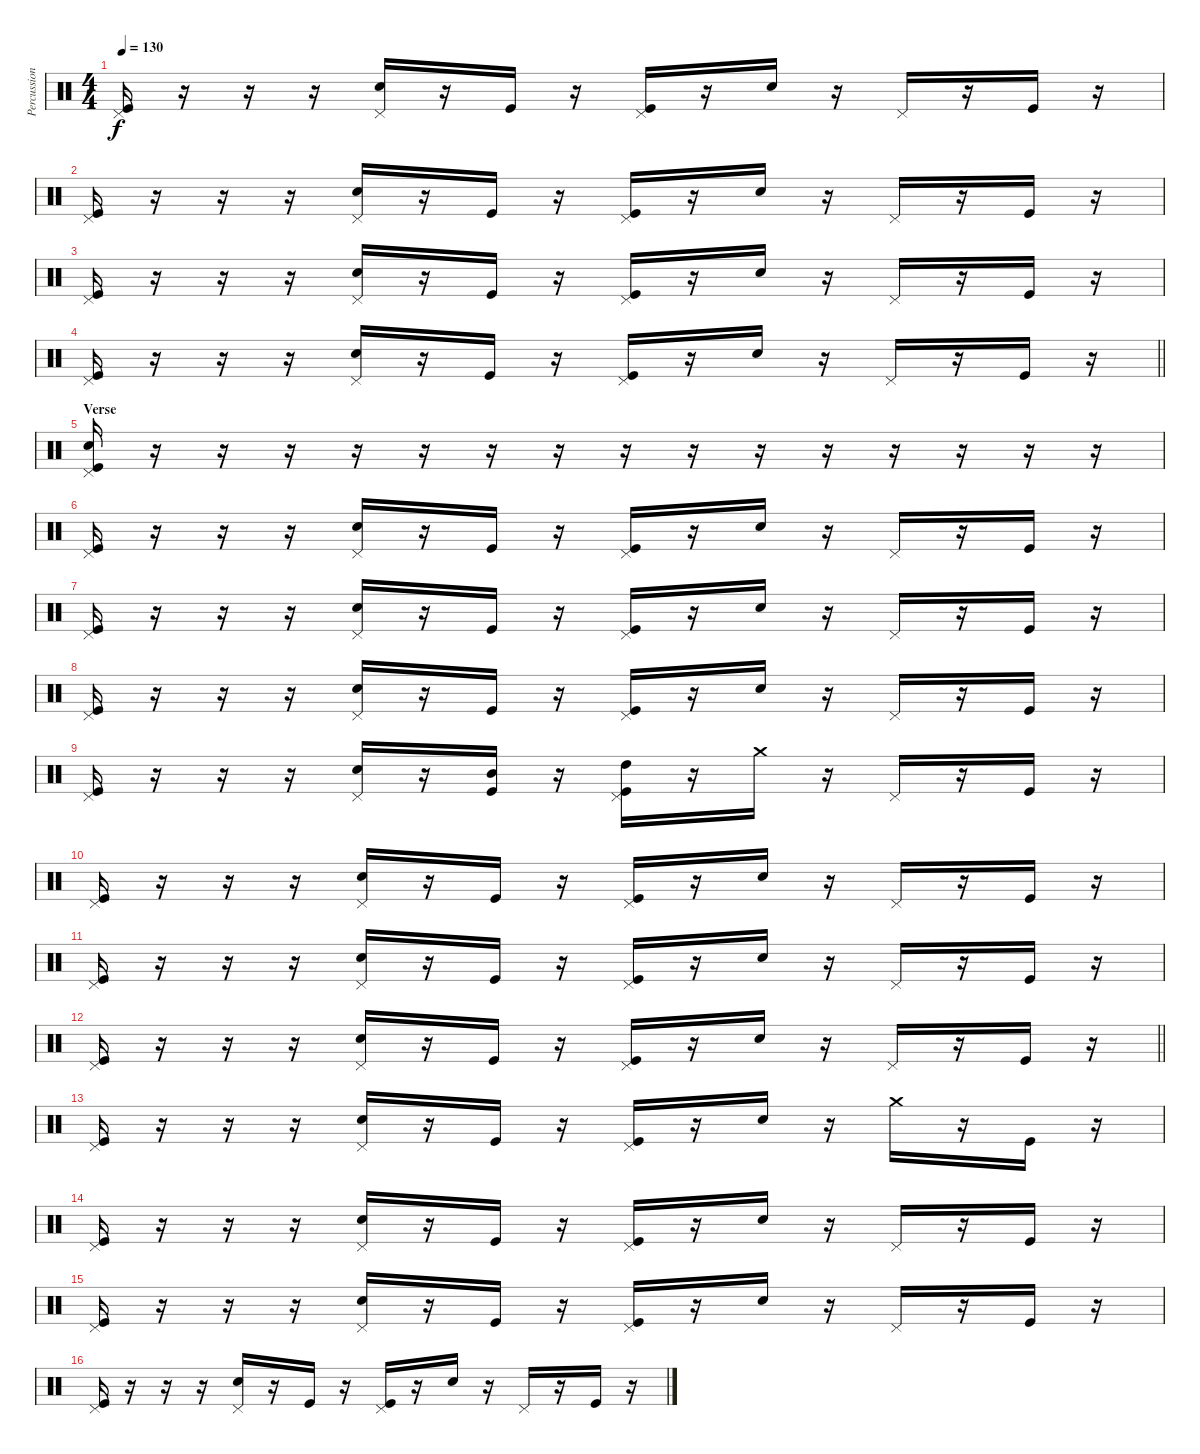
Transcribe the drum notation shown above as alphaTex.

\track ("Percussion" "Percussion") {instrument percussion}
\staff {score}
\articulation defaults
\ts (4 4)
\tempo 130
\clef neutral
\ks c
("Pedal Hi-Hat (hit)" "Kick (hit)").16{dy f} r.16 r.16 r.16 ("Pedal Hi-Hat (hit)" "Electric Snare (hit)").16 r.16 "Kick (hit)".16 r.16 ("Pedal Hi-Hat (hit)" "Kick (hit)").16 r.16 "Electric Snare (hit)".16 r.16 "Pedal Hi-Hat (hit)".16 r.16 "Kick (hit)".16 r.16 |
("Pedal Hi-Hat (hit)" "Kick (hit)").16 r.16 r.16 r.16 ("Pedal Hi-Hat (hit)" "Electric Snare (hit)").16 r.16 "Kick (hit)".16 r.16 ("Pedal Hi-Hat (hit)" "Kick (hit)").16 r.16 "Electric Snare (hit)".16 r.16 "Pedal Hi-Hat (hit)".16 r.16 "Kick (hit)".16 r.16 |
("Pedal Hi-Hat (hit)" "Kick (hit)").16 r.16 r.16 r.16 ("Pedal Hi-Hat (hit)" "Electric Snare (hit)").16 r.16 "Kick (hit)".16 r.16 ("Pedal Hi-Hat (hit)" "Kick (hit)").16 r.16 "Electric Snare (hit)".16 r.16 "Pedal Hi-Hat (hit)".16 r.16 "Kick (hit)".16 r.16 |
\barLineRight lightlight
("Pedal Hi-Hat (hit)" "Kick (hit)").16 r.16 r.16 r.16 ("Pedal Hi-Hat (hit)" "Electric Snare (hit)").16 r.16 "Kick (hit)".16 r.16 ("Pedal Hi-Hat (hit)" "Kick (hit)").16 r.16 "Electric Snare (hit)".16 r.16 "Pedal Hi-Hat (hit)".16 r.16 "Kick (hit)".16 r.16 |
\section ("" "Verse")
("Pedal Hi-Hat (hit)" "Electric Snare (hit)" "Kick (hit)").16 r.16 r.16 r.16 r.16 r.16 r.16 r.16 r.16 r.16 r.16 r.16 r.16 r.16 r.16 r.16 |
("Pedal Hi-Hat (hit)" "Kick (hit)").16 r.16 r.16 r.16 ("Pedal Hi-Hat (hit)" "Electric Snare (hit)").16 r.16 "Kick (hit)".16 r.16 ("Pedal Hi-Hat (hit)" "Kick (hit)").16 r.16 "Electric Snare (hit)".16 r.16 "Pedal Hi-Hat (hit)".16 r.16 "Kick (hit)".16 r.16 |
("Pedal Hi-Hat (hit)" "Kick (hit)").16 r.16 r.16 r.16 ("Pedal Hi-Hat (hit)" "Electric Snare (hit)").16 r.16 "Kick (hit)".16 r.16 ("Pedal Hi-Hat (hit)" "Kick (hit)").16 r.16 "Electric Snare (hit)".16 r.16 "Pedal Hi-Hat (hit)".16 r.16 "Kick (hit)".16 r.16 |
("Pedal Hi-Hat (hit)" "Kick (hit)").16 r.16 r.16 r.16 ("Pedal Hi-Hat (hit)" "Electric Snare (hit)").16 r.16 "Kick (hit)".16 r.16 ("Pedal Hi-Hat (hit)" "Kick (hit)").16 r.16 "Electric Snare (hit)".16 r.16 "Pedal Hi-Hat (hit)".16 r.16 "Kick (hit)".16 r.16 |
("Pedal Hi-Hat (hit)" "Kick (hit)").16 r.16 r.16 r.16 ("Pedal Hi-Hat (hit)" "Electric Snare (hit)").16 r.16 ("Mid Tom (hit)" "Kick (hit)").16 r.16 ("Pedal Hi-Hat (hit)" "High Tom (hit)" "Kick (hit)").16 r.16 "Crash medium (hit)".16 r.16 "Pedal Hi-Hat (hit)".16 r.16 "Kick (hit)".16 r.16 |
("Pedal Hi-Hat (hit)" "Kick (hit)").16 r.16 r.16 r.16 ("Pedal Hi-Hat (hit)" "Electric Snare (hit)").16 r.16 "Kick (hit)".16 r.16 ("Pedal Hi-Hat (hit)" "Kick (hit)").16 r.16 "Electric Snare (hit)".16 r.16 "Pedal Hi-Hat (hit)".16 r.16 "Kick (hit)".16 r.16 |
("Pedal Hi-Hat (hit)" "Kick (hit)").16 r.16 r.16 r.16 ("Pedal Hi-Hat (hit)" "Electric Snare (hit)").16 r.16 "Kick (hit)".16 r.16 ("Pedal Hi-Hat (hit)" "Kick (hit)").16 r.16 "Electric Snare (hit)".16 r.16 "Pedal Hi-Hat (hit)".16 r.16 "Kick (hit)".16 r.16 |
\barLineRight lightlight
("Pedal Hi-Hat (hit)" "Kick (hit)").16 r.16 r.16 r.16 ("Pedal Hi-Hat (hit)" "Electric Snare (hit)").16 r.16 "Kick (hit)".16 r.16 ("Pedal Hi-Hat (hit)" "Kick (hit)").16 r.16 "Electric Snare (hit)".16 r.16 "Pedal Hi-Hat (hit)".16 r.16 "Kick (hit)".16 r.16 |
("Pedal Hi-Hat (hit)" "Kick (hit)").16 r.16 r.16 r.16 ("Pedal Hi-Hat (hit)" "Electric Snare (hit)").16 r.16 "Kick (hit)".16 r.16 ("Pedal Hi-Hat (hit)" "Kick (hit)").16 r.16 "Electric Snare (hit)".16 r.16 "Crash medium (hit)".16 r.16 "Kick (hit)".16 r.16 |
("Pedal Hi-Hat (hit)" "Kick (hit)").16 r.16 r.16 r.16 ("Pedal Hi-Hat (hit)" "Electric Snare (hit)").16 r.16 "Kick (hit)".16 r.16 ("Pedal Hi-Hat (hit)" "Kick (hit)").16 r.16 "Electric Snare (hit)".16 r.16 "Pedal Hi-Hat (hit)".16 r.16 "Kick (hit)".16 r.16 |
("Pedal Hi-Hat (hit)" "Kick (hit)").16 r.16 r.16 r.16 ("Pedal Hi-Hat (hit)" "Electric Snare (hit)").16 r.16 "Kick (hit)".16 r.16 ("Pedal Hi-Hat (hit)" "Kick (hit)").16 r.16 "Electric Snare (hit)".16 r.16 "Pedal Hi-Hat (hit)".16 r.16 "Kick (hit)".16 r.16 |
("Pedal Hi-Hat (hit)" "Kick (hit)").16 r.16 r.16 r.16 ("Pedal Hi-Hat (hit)" "Electric Snare (hit)").16 r.16 "Kick (hit)".16 r.16 ("Pedal Hi-Hat (hit)" "Kick (hit)").16 r.16 "Electric Snare (hit)".16 r.16 "Pedal Hi-Hat (hit)".16 r.16 "Kick (hit)".16 r.16
